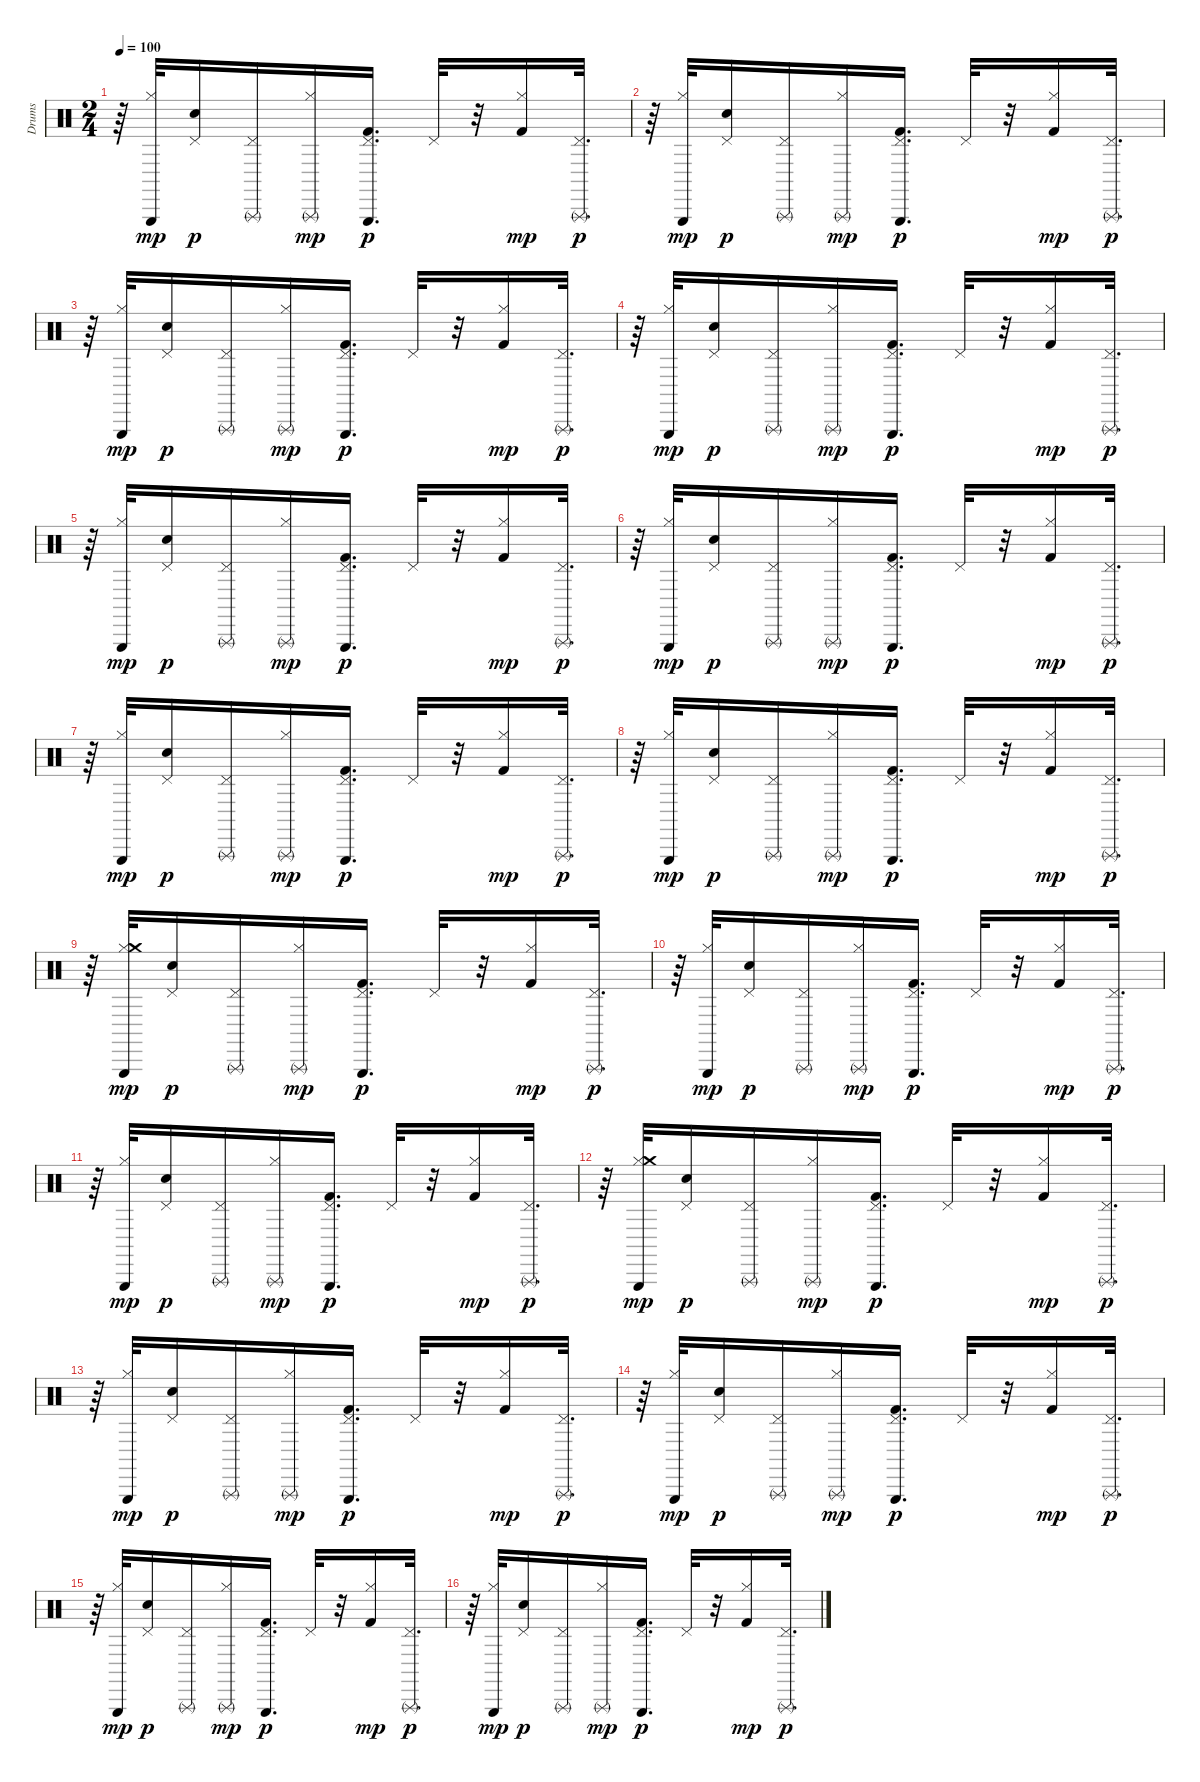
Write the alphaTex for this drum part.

\track ("Drums" "Drums") {instrument percussion}
\staff {score}
\articulation defaults
\ts (2 4)
\tempo 100
\clef neutral
\ks c
r.64{dy p} ("Triangle (hit)" "Hi-Hat (closed)").32{dy mp} ("Pedal Hi-Hat (hit)" "Electric Snare (hit)").16{dy p} ("Triangle (rnute)" "Pedal Hi-Hat (hit)").16 ("Triangle (rnute)" "Hi-Hat (closed)").16{dy mp} ("Triangle (hit)" "Kick (hit) 2" "Pedal Hi-Hat (hit)").16{d dy p} "Pedal Hi-Hat (hit)".32 r.32 ("Kick (hit) 2" "Hi-Hat (closed)").16{dy mp} ("Triangle (rnute)" "Pedal Hi-Hat (hit)").32{d dy p} |
r.64 ("Triangle (hit)" "Hi-Hat (closed)").32{dy mp} ("Pedal Hi-Hat (hit)" "Electric Snare (hit)").16{dy p} ("Triangle (rnute)" "Pedal Hi-Hat (hit)").16 ("Triangle (rnute)" "Hi-Hat (closed)").16{dy mp} ("Triangle (hit)" "Kick (hit) 2" "Pedal Hi-Hat (hit)").16{d dy p} "Pedal Hi-Hat (hit)".32 r.32 ("Kick (hit) 2" "Hi-Hat (closed)").16{dy mp} ("Triangle (rnute)" "Pedal Hi-Hat (hit)").32{d dy p} |
r.64 ("Triangle (hit)" "Hi-Hat (closed)").32{dy mp} ("Pedal Hi-Hat (hit)" "Electric Snare (hit)").16{dy p} ("Triangle (rnute)" "Pedal Hi-Hat (hit)").16 ("Triangle (rnute)" "Hi-Hat (closed)").16{dy mp} ("Triangle (hit)" "Kick (hit) 2" "Pedal Hi-Hat (hit)").16{d dy p} "Pedal Hi-Hat (hit)".32 r.32 ("Kick (hit) 2" "Hi-Hat (closed)").16{dy mp} ("Triangle (rnute)" "Pedal Hi-Hat (hit)").32{d dy p} |
r.64 ("Triangle (hit)" "Hi-Hat (closed)").32{dy mp} ("Pedal Hi-Hat (hit)" "Electric Snare (hit)").16{dy p} ("Triangle (rnute)" "Pedal Hi-Hat (hit)").16 ("Triangle (rnute)" "Hi-Hat (closed)").16{dy mp} ("Triangle (hit)" "Kick (hit) 2" "Pedal Hi-Hat (hit)").16{d dy p} "Pedal Hi-Hat (hit)".32 r.32 ("Kick (hit) 2" "Hi-Hat (closed)").16{dy mp} ("Triangle (rnute)" "Pedal Hi-Hat (hit)").32{d dy p} |
r.64 ("Triangle (hit)" "Hi-Hat (closed)").32{dy mp} ("Pedal Hi-Hat (hit)" "Electric Snare (hit)").16{dy p} ("Triangle (rnute)" "Pedal Hi-Hat (hit)").16 ("Triangle (rnute)" "Hi-Hat (closed)").16{dy mp} ("Triangle (hit)" "Kick (hit) 2" "Pedal Hi-Hat (hit)").16{d dy p} "Pedal Hi-Hat (hit)".32 r.32 ("Kick (hit) 2" "Hi-Hat (closed)").16{dy mp} ("Triangle (rnute)" "Pedal Hi-Hat (hit)").32{d dy p} |
r.64 ("Triangle (hit)" "Hi-Hat (closed)").32{dy mp} ("Pedal Hi-Hat (hit)" "Electric Snare (hit)").16{dy p} ("Triangle (rnute)" "Pedal Hi-Hat (hit)").16 ("Triangle (rnute)" "Hi-Hat (closed)").16{dy mp} ("Triangle (hit)" "Kick (hit) 2" "Pedal Hi-Hat (hit)").16{d dy p} "Pedal Hi-Hat (hit)".32 r.32 ("Kick (hit) 2" "Hi-Hat (closed)").16{dy mp} ("Triangle (rnute)" "Pedal Hi-Hat (hit)").32{d dy p} |
r.64 ("Triangle (hit)" "Hi-Hat (closed)").32{dy mp} ("Pedal Hi-Hat (hit)" "Electric Snare (hit)").16{dy p} ("Triangle (rnute)" "Pedal Hi-Hat (hit)").16 ("Triangle (rnute)" "Hi-Hat (closed)").16{dy mp} ("Triangle (hit)" "Kick (hit) 2" "Pedal Hi-Hat (hit)").16{d dy p} "Pedal Hi-Hat (hit)".32 r.32 ("Kick (hit) 2" "Hi-Hat (closed)").16{dy mp} ("Triangle (rnute)" "Pedal Hi-Hat (hit)").32{d dy p} |
r.64 ("Triangle (hit)" "Hi-Hat (closed)").32{dy mp} ("Pedal Hi-Hat (hit)" "Electric Snare (hit)").16{dy p} ("Triangle (rnute)" "Pedal Hi-Hat (hit)").16 ("Triangle (rnute)" "Hi-Hat (closed)").16{dy mp} ("Triangle (hit)" "Kick (hit) 2" "Pedal Hi-Hat (hit)").16{d dy p} "Pedal Hi-Hat (hit)".32 r.32 ("Kick (hit) 2" "Hi-Hat (closed)").16{dy mp} ("Triangle (rnute)" "Pedal Hi-Hat (hit)").32{d dy p} |
r.64 ("Triangle (hit)" "Hi-Hat (closed)" "Crash medium (hit)").32{dy mp} ("Pedal Hi-Hat (hit)" "Electric Snare (hit)").16{dy p} ("Triangle (rnute)" "Pedal Hi-Hat (hit)").16 ("Triangle (rnute)" "Hi-Hat (closed)").16{dy mp} ("Triangle (hit)" "Kick (hit) 2" "Pedal Hi-Hat (hit)").16{d dy p} "Pedal Hi-Hat (hit)".32 r.32 ("Kick (hit) 2" "Hi-Hat (closed)").16{dy mp} ("Triangle (rnute)" "Pedal Hi-Hat (hit)").32{d dy p} |
r.64 ("Triangle (hit)" "Hi-Hat (closed)").32{dy mp} ("Pedal Hi-Hat (hit)" "Electric Snare (hit)").16{dy p} ("Triangle (rnute)" "Pedal Hi-Hat (hit)").16 ("Triangle (rnute)" "Hi-Hat (closed)").16{dy mp} ("Triangle (hit)" "Kick (hit) 2" "Pedal Hi-Hat (hit)").16{d dy p} "Pedal Hi-Hat (hit)".32 r.32 ("Kick (hit) 2" "Hi-Hat (closed)").16{dy mp} ("Triangle (rnute)" "Pedal Hi-Hat (hit)").32{d dy p} |
r.64 ("Triangle (hit)" "Hi-Hat (closed)").32{dy mp} ("Pedal Hi-Hat (hit)" "Electric Snare (hit)").16{dy p} ("Triangle (rnute)" "Pedal Hi-Hat (hit)").16 ("Triangle (rnute)" "Hi-Hat (closed)").16{dy mp} ("Triangle (hit)" "Kick (hit) 2" "Pedal Hi-Hat (hit)").16{d dy p} "Pedal Hi-Hat (hit)".32 r.32 ("Kick (hit) 2" "Hi-Hat (closed)").16{dy mp} ("Triangle (rnute)" "Pedal Hi-Hat (hit)").32{d dy p} |
r.64 ("Triangle (hit)" "Hi-Hat (closed)" "Crash medium (hit)").32{dy mp} ("Pedal Hi-Hat (hit)" "Electric Snare (hit)").16{dy p} ("Triangle (rnute)" "Pedal Hi-Hat (hit)").16 ("Triangle (rnute)" "Hi-Hat (closed)").16{dy mp} ("Triangle (hit)" "Kick (hit) 2" "Pedal Hi-Hat (hit)").16{d dy p} "Pedal Hi-Hat (hit)".32 r.32 ("Kick (hit) 2" "Hi-Hat (closed)").16{dy mp} ("Triangle (rnute)" "Pedal Hi-Hat (hit)").32{d dy p} |
r.64 ("Triangle (hit)" "Hi-Hat (closed)").32{dy mp} ("Pedal Hi-Hat (hit)" "Electric Snare (hit)").16{dy p} ("Triangle (rnute)" "Pedal Hi-Hat (hit)").16 ("Triangle (rnute)" "Hi-Hat (closed)").16{dy mp} ("Triangle (hit)" "Kick (hit) 2" "Pedal Hi-Hat (hit)").16{d dy p} "Pedal Hi-Hat (hit)".32 r.32 ("Kick (hit) 2" "Hi-Hat (closed)").16{dy mp} ("Triangle (rnute)" "Pedal Hi-Hat (hit)").32{d dy p} |
r.64 ("Triangle (hit)" "Hi-Hat (closed)").32{dy mp} ("Pedal Hi-Hat (hit)" "Electric Snare (hit)").16{dy p} ("Triangle (rnute)" "Pedal Hi-Hat (hit)").16 ("Triangle (rnute)" "Hi-Hat (closed)").16{dy mp} ("Triangle (hit)" "Kick (hit) 2" "Pedal Hi-Hat (hit)").16{d dy p} "Pedal Hi-Hat (hit)".32 r.32 ("Kick (hit) 2" "Hi-Hat (closed)").16{dy mp} ("Triangle (rnute)" "Pedal Hi-Hat (hit)").32{d dy p} |
r.64 ("Triangle (hit)" "Hi-Hat (closed)").32{dy mp} ("Pedal Hi-Hat (hit)" "Electric Snare (hit)").16{dy p} ("Triangle (rnute)" "Pedal Hi-Hat (hit)").16 ("Triangle (rnute)" "Hi-Hat (closed)").16{dy mp} ("Triangle (hit)" "Kick (hit) 2" "Pedal Hi-Hat (hit)").16{d dy p} "Pedal Hi-Hat (hit)".32 r.32 ("Kick (hit) 2" "Hi-Hat (closed)").16{dy mp} ("Triangle (rnute)" "Pedal Hi-Hat (hit)").32{d dy p} |
r.64 ("Triangle (hit)" "Hi-Hat (closed)").32{dy mp} ("Pedal Hi-Hat (hit)" "Electric Snare (hit)").16{dy p} ("Triangle (rnute)" "Pedal Hi-Hat (hit)").16 ("Triangle (rnute)" "Hi-Hat (closed)").16{dy mp} ("Triangle (hit)" "Kick (hit) 2" "Pedal Hi-Hat (hit)").16{d dy p} "Pedal Hi-Hat (hit)".32 r.32 ("Kick (hit) 2" "Hi-Hat (closed)").16{dy mp} ("Triangle (rnute)" "Pedal Hi-Hat (hit)").32{d dy p}
